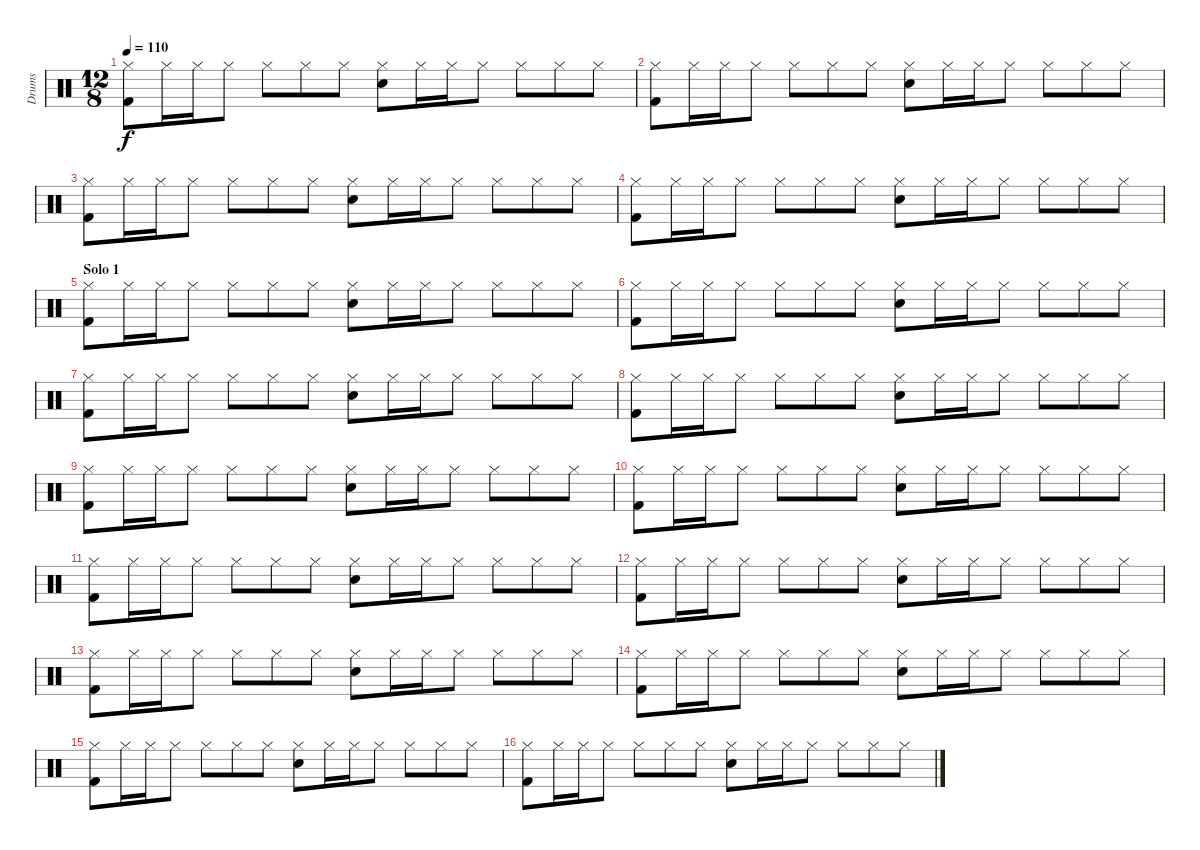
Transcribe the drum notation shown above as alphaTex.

\track ("Drums" "Drums") {instrument percussion}
\staff {score}
\articulation defaults
\ts (12 8)
\tempo 110
\clef neutral
\ks c
("Hi-Hat (closed)" "Kick (hit) 2").8{dy f} "Hi-Hat (closed)".16 "Hi-Hat (closed)".16 "Hi-Hat (closed)".8 "Hi-Hat (closed)".8 "Hi-Hat (closed)".8 "Hi-Hat (closed)".8 ("Hi-Hat (closed)" "Snare (hit) 2").8 "Hi-Hat (closed)".16 "Hi-Hat (closed)".16 "Hi-Hat (closed)".8 "Hi-Hat (closed)".8 "Hi-Hat (closed)".8 "Hi-Hat (closed)".8 |
("Hi-Hat (closed)" "Kick (hit) 2").8 "Hi-Hat (closed)".16 "Hi-Hat (closed)".16 "Hi-Hat (closed)".8 "Hi-Hat (closed)".8 "Hi-Hat (closed)".8 "Hi-Hat (closed)".8 ("Hi-Hat (closed)" "Snare (hit) 2").8 "Hi-Hat (closed)".16 "Hi-Hat (closed)".16 "Hi-Hat (closed)".8 "Hi-Hat (closed)".8 "Hi-Hat (closed)".8 "Hi-Hat (closed)".8 |
("Hi-Hat (closed)" "Kick (hit) 2").8 "Hi-Hat (closed)".16 "Hi-Hat (closed)".16 "Hi-Hat (closed)".8 "Hi-Hat (closed)".8 "Hi-Hat (closed)".8 "Hi-Hat (closed)".8 ("Hi-Hat (closed)" "Snare (hit) 2").8 "Hi-Hat (closed)".16 "Hi-Hat (closed)".16 "Hi-Hat (closed)".8 "Hi-Hat (closed)".8 "Hi-Hat (closed)".8 "Hi-Hat (closed)".8 |
("Hi-Hat (closed)" "Kick (hit) 2").8 "Hi-Hat (closed)".16 "Hi-Hat (closed)".16 "Hi-Hat (closed)".8 "Hi-Hat (closed)".8 "Hi-Hat (closed)".8 "Hi-Hat (closed)".8 ("Hi-Hat (closed)" "Snare (hit) 2").8 "Hi-Hat (closed)".16 "Hi-Hat (closed)".16 "Hi-Hat (closed)".8 "Hi-Hat (closed)".8 "Hi-Hat (closed)".8 "Hi-Hat (closed)".8 |
\section ("" "Solo 1")
("Hi-Hat (closed)" "Kick (hit) 2").8 "Hi-Hat (closed)".16 "Hi-Hat (closed)".16 "Hi-Hat (closed)".8 "Hi-Hat (closed)".8 "Hi-Hat (closed)".8 "Hi-Hat (closed)".8 ("Hi-Hat (closed)" "Snare (hit) 2").8 "Hi-Hat (closed)".16 "Hi-Hat (closed)".16 "Hi-Hat (closed)".8 "Hi-Hat (closed)".8 "Hi-Hat (closed)".8 "Hi-Hat (closed)".8 |
("Hi-Hat (closed)" "Kick (hit) 2").8 "Hi-Hat (closed)".16 "Hi-Hat (closed)".16 "Hi-Hat (closed)".8 "Hi-Hat (closed)".8 "Hi-Hat (closed)".8 "Hi-Hat (closed)".8 ("Hi-Hat (closed)" "Snare (hit) 2").8 "Hi-Hat (closed)".16 "Hi-Hat (closed)".16 "Hi-Hat (closed)".8 "Hi-Hat (closed)".8 "Hi-Hat (closed)".8 "Hi-Hat (closed)".8 |
("Hi-Hat (closed)" "Kick (hit) 2").8 "Hi-Hat (closed)".16 "Hi-Hat (closed)".16 "Hi-Hat (closed)".8 "Hi-Hat (closed)".8 "Hi-Hat (closed)".8 "Hi-Hat (closed)".8 ("Hi-Hat (closed)" "Snare (hit) 2").8 "Hi-Hat (closed)".16 "Hi-Hat (closed)".16 "Hi-Hat (closed)".8 "Hi-Hat (closed)".8 "Hi-Hat (closed)".8 "Hi-Hat (closed)".8 |
("Hi-Hat (closed)" "Kick (hit) 2").8 "Hi-Hat (closed)".16 "Hi-Hat (closed)".16 "Hi-Hat (closed)".8 "Hi-Hat (closed)".8 "Hi-Hat (closed)".8 "Hi-Hat (closed)".8 ("Hi-Hat (closed)" "Snare (hit) 2").8 "Hi-Hat (closed)".16 "Hi-Hat (closed)".16 "Hi-Hat (closed)".8 "Hi-Hat (closed)".8 "Hi-Hat (closed)".8 "Hi-Hat (closed)".8 |
("Hi-Hat (closed)" "Kick (hit) 2").8 "Hi-Hat (closed)".16 "Hi-Hat (closed)".16 "Hi-Hat (closed)".8 "Hi-Hat (closed)".8 "Hi-Hat (closed)".8 "Hi-Hat (closed)".8 ("Hi-Hat (closed)" "Snare (hit) 2").8 "Hi-Hat (closed)".16 "Hi-Hat (closed)".16 "Hi-Hat (closed)".8 "Hi-Hat (closed)".8 "Hi-Hat (closed)".8 "Hi-Hat (closed)".8 |
("Hi-Hat (closed)" "Kick (hit) 2").8 "Hi-Hat (closed)".16 "Hi-Hat (closed)".16 "Hi-Hat (closed)".8 "Hi-Hat (closed)".8 "Hi-Hat (closed)".8 "Hi-Hat (closed)".8 ("Hi-Hat (closed)" "Snare (hit) 2").8 "Hi-Hat (closed)".16 "Hi-Hat (closed)".16 "Hi-Hat (closed)".8 "Hi-Hat (closed)".8 "Hi-Hat (closed)".8 "Hi-Hat (closed)".8 |
("Hi-Hat (closed)" "Kick (hit) 2").8 "Hi-Hat (closed)".16 "Hi-Hat (closed)".16 "Hi-Hat (closed)".8 "Hi-Hat (closed)".8 "Hi-Hat (closed)".8 "Hi-Hat (closed)".8 ("Hi-Hat (closed)" "Snare (hit) 2").8 "Hi-Hat (closed)".16 "Hi-Hat (closed)".16 "Hi-Hat (closed)".8 "Hi-Hat (closed)".8 "Hi-Hat (closed)".8 "Hi-Hat (closed)".8 |
("Hi-Hat (closed)" "Kick (hit) 2").8 "Hi-Hat (closed)".16 "Hi-Hat (closed)".16 "Hi-Hat (closed)".8 "Hi-Hat (closed)".8 "Hi-Hat (closed)".8 "Hi-Hat (closed)".8 ("Hi-Hat (closed)" "Snare (hit) 2").8 "Hi-Hat (closed)".16 "Hi-Hat (closed)".16 "Hi-Hat (closed)".8 "Hi-Hat (closed)".8 "Hi-Hat (closed)".8 "Hi-Hat (closed)".8 |
("Hi-Hat (closed)" "Kick (hit) 2").8 "Hi-Hat (closed)".16 "Hi-Hat (closed)".16 "Hi-Hat (closed)".8 "Hi-Hat (closed)".8 "Hi-Hat (closed)".8 "Hi-Hat (closed)".8 ("Hi-Hat (closed)" "Snare (hit) 2").8 "Hi-Hat (closed)".16 "Hi-Hat (closed)".16 "Hi-Hat (closed)".8 "Hi-Hat (closed)".8 "Hi-Hat (closed)".8 "Hi-Hat (closed)".8 |
("Hi-Hat (closed)" "Kick (hit) 2").8 "Hi-Hat (closed)".16 "Hi-Hat (closed)".16 "Hi-Hat (closed)".8 "Hi-Hat (closed)".8 "Hi-Hat (closed)".8 "Hi-Hat (closed)".8 ("Hi-Hat (closed)" "Snare (hit) 2").8 "Hi-Hat (closed)".16 "Hi-Hat (closed)".16 "Hi-Hat (closed)".8 "Hi-Hat (closed)".8 "Hi-Hat (closed)".8 "Hi-Hat (closed)".8 |
("Hi-Hat (closed)" "Kick (hit) 2").8 "Hi-Hat (closed)".16 "Hi-Hat (closed)".16 "Hi-Hat (closed)".8 "Hi-Hat (closed)".8 "Hi-Hat (closed)".8 "Hi-Hat (closed)".8 ("Hi-Hat (closed)" "Snare (hit) 2").8 "Hi-Hat (closed)".16 "Hi-Hat (closed)".16 "Hi-Hat (closed)".8 "Hi-Hat (closed)".8 "Hi-Hat (closed)".8 "Hi-Hat (closed)".8 |
("Hi-Hat (closed)" "Kick (hit) 2").8 "Hi-Hat (closed)".16 "Hi-Hat (closed)".16 "Hi-Hat (closed)".8 "Hi-Hat (closed)".8 "Hi-Hat (closed)".8 "Hi-Hat (closed)".8 ("Hi-Hat (closed)" "Snare (hit) 2").8 "Hi-Hat (closed)".16 "Hi-Hat (closed)".16 "Hi-Hat (closed)".8 "Hi-Hat (closed)".8 "Hi-Hat (closed)".8 "Hi-Hat (closed)".8
